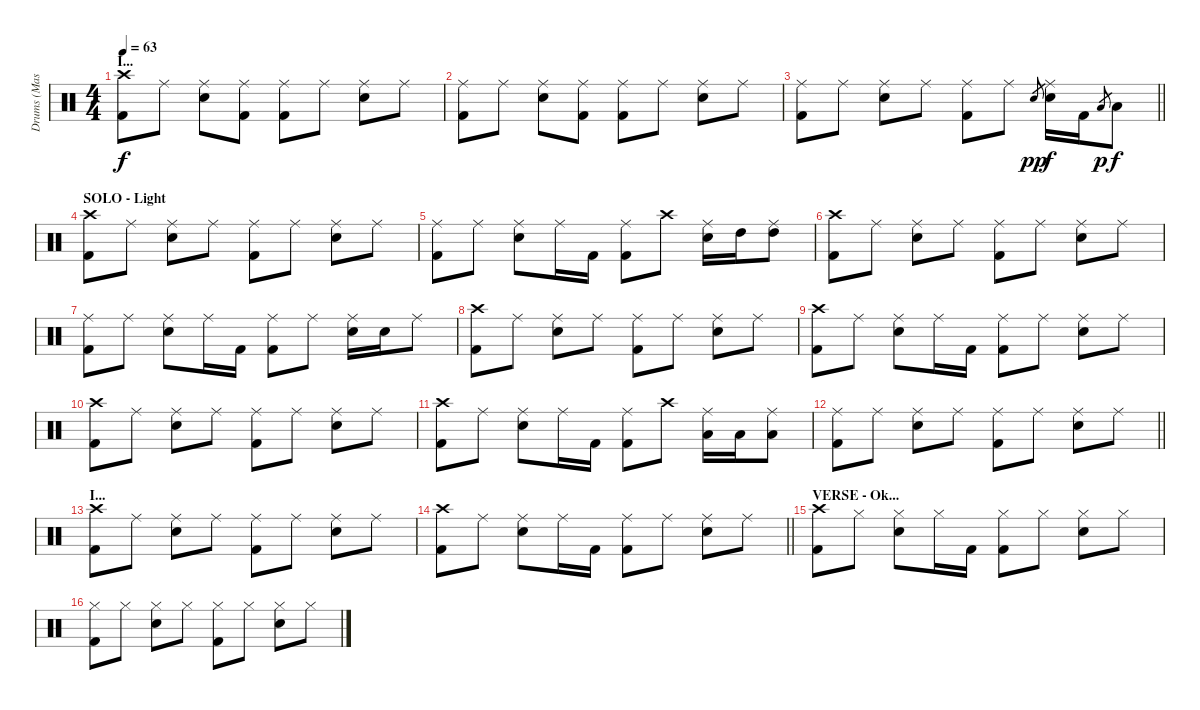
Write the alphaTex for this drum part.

\track ("Drums (Mason)" "Drums (Mas") {instrument percussion}
\staff {score}
\articulation defaults
\ts (4 4)
\section ("" "I...")
\tempo 63
\clef neutral
\ks c
("Crash high (hit)" "Kick (hit) 2").8{dy f} "Ride (middle)".8 ("Ride (middle)" "Snare (hit) 2").8 ("Ride (middle)" "Kick (hit) 2").8 ("Ride (middle)" "Kick (hit) 2").8 "Ride (middle)".8 ("Ride (middle)" "Snare (hit) 2").8 "Ride (middle)".8 |
("Ride (middle)" "Kick (hit) 2").8 "Ride (middle)".8 ("Ride (middle)" "Snare (hit) 2").8 ("Ride (middle)" "Kick (hit) 2").8 ("Ride (middle)" "Kick (hit) 2").8 "Ride (middle)".8 ("Ride (middle)" "Snare (hit) 2").8 "Ride (middle)".8 |
\barLineRight lightlight
("Ride (middle)" "Kick (hit) 2").8 "Ride (middle)".8 ("Ride (middle)" "Snare (hit) 2").8 "Ride (middle)".8 ("Ride (middle)" "Kick (hit) 2").8 "Ride (middle)".8 "Snare (hit) 2".8{gr dy pp} ("Ride (middle)" "Snare (hit) 2").16{dy f} "Kick (hit) 2".16 "Low Tom (hit)".8{gr dy p} "Low Tom (hit)".8{dy f} |
\section ("" "SOLO - Light")
("Crash high (hit)" "Kick (hit) 2").8 "Ride (middle)".8 ("Ride (middle)" "Snare (hit) 2").8 "Ride (middle)".8 ("Ride (middle)" "Kick (hit) 2").8 "Ride (middle)".8 ("Ride (middle)" "Snare (hit) 2").8 "Ride (middle)".8 |
("Ride (middle)" "Kick (hit) 2").8 "Ride (middle)".8 ("Ride (middle)" "Snare (hit) 2").8 "Ride (middle)".16 "Kick (hit) 2".16 ("Ride (middle)" "Kick (hit) 2").8 "Crash high (hit)".8 ("Ride (middle)" "Snare (hit) 2").16 "High Tom (hit)".16 ("Ride (middle)" "High Tom (hit)").8 |
("Crash high (hit)" "Kick (hit) 2").8 "Ride (middle)".8 ("Ride (middle)" "Snare (hit) 2").8 "Ride (middle)".8 ("Ride (middle)" "Kick (hit) 2").8 "Ride (middle)".8 ("Ride (middle)" "Snare (hit) 2").8 "Ride (middle)".8 |
("Ride (middle)" "Kick (hit) 2").8 "Ride (middle)".8 ("Ride (middle)" "Snare (hit) 2").8 "Ride (middle)".16 "Kick (hit) 2".16 ("Ride (middle)" "Kick (hit) 2").8 "Ride (middle)".8 ("Ride (middle)" "Snare (hit) 2").16 "Snare (hit) 2".16 "Ride (middle)".8 |
("Crash high (hit)" "Kick (hit) 2").8 "Ride (middle)".8 ("Ride (middle)" "Snare (hit) 2").8 "Ride (middle)".8 ("Ride (middle)" "Kick (hit) 2").8 "Ride (middle)".8 ("Ride (middle)" "Snare (hit) 2").8 "Ride (middle)".8 |
("Crash high (hit)" "Kick (hit) 2").8 "Ride (middle)".8 ("Ride (middle)" "Snare (hit) 2").8 "Ride (middle)".16 "Kick (hit) 2".16 ("Ride (middle)" "Kick (hit) 2").8 "Ride (middle)".8 ("Ride (middle)" "Snare (hit) 2").8 "Ride (middle)".8 |
("Crash high (hit)" "Kick (hit) 2").8 "Ride (middle)".8 ("Ride (middle)" "Snare (hit) 2").8 "Ride (middle)".8 ("Ride (middle)" "Kick (hit) 2").8 "Ride (middle)".8 ("Ride (middle)" "Snare (hit) 2").8 "Ride (middle)".8 |
("Crash high (hit)" "Kick (hit) 2").8 "Ride (middle)".8 ("Ride (middle)" "Snare (hit) 2").8 "Ride (middle)".16 "Kick (hit) 2".16 ("Ride (middle)" "Kick (hit) 2").8 "Crash high (hit)".8 ("Ride (middle)" "Low Tom (hit)").16 "Low Tom (hit)".16 ("Ride (middle)" "Low Floor Tom (hit)").8 |
\barLineRight lightlight
("Ride (middle)" "Kick (hit) 2").8 "Ride (middle)".8 ("Ride (middle)" "Snare (hit) 2").8 "Ride (middle)".8 ("Ride (middle)" "Kick (hit) 2").8 "Ride (middle)".8 ("Ride (middle)" "Snare (hit) 2").8 "Ride (middle)".8 |
\section ("" "I...")
("Crash high (hit)" "Kick (hit) 2").8 "Ride (middle)".8 ("Ride (middle)" "Snare (hit) 2").8 "Ride (middle)".8 ("Ride (middle)" "Kick (hit) 2").8 "Ride (middle)".8 ("Ride (middle)" "Snare (hit) 2").8 "Ride (middle)".8 |
\barLineRight lightlight
("Crash high (hit)" "Kick (hit) 2").8 "Ride (middle)".8 ("Ride (middle)" "Snare (hit) 2").8 "Ride (middle)".16 "Kick (hit) 2".16 ("Ride (middle)" "Kick (hit) 2").8 "Ride (middle)".8 ("Ride (middle)" "Snare (hit) 2").8 "Ride (middle)".8 |
\section ("" "VERSE - Ok...")
("Crash high (hit)" "Kick (hit) 2").8 "Hi-Hat (closed)".8 ("Hi-Hat (closed)" "Snare (hit) 2").8 "Hi-Hat (closed)".16 "Kick (hit) 2".16 ("Hi-Hat (closed)" "Kick (hit) 2").8 "Hi-Hat (closed)".8 ("Hi-Hat (closed)" "Snare (hit) 2").8 "Hi-Hat (closed)".8 |
("Hi-Hat (closed)" "Kick (hit) 2").8 "Hi-Hat (closed)".8 ("Hi-Hat (closed)" "Snare (hit) 2").8 "Hi-Hat (closed)".8 ("Hi-Hat (closed)" "Kick (hit) 2").8 "Hi-Hat (closed)".8 ("Hi-Hat (closed)" "Snare (hit) 2").8 "Hi-Hat (closed)".8
